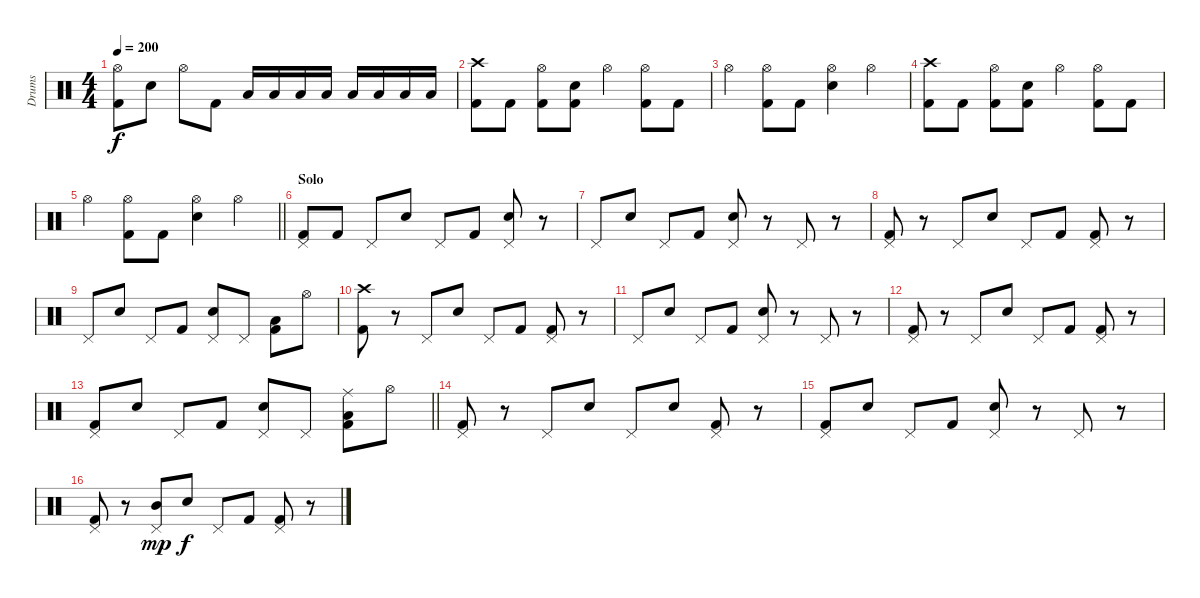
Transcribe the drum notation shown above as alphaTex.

\track ("Drums" "Drums") {instrument percussion}
\staff {score}
\articulation defaults
\ts (4 4)
\tempo 200
\clef neutral
\ks c
("Hi-Hat (open)" "Kick (hit) 2").8{dy f} "Snare (hit) 2".8 "Hi-Hat (open)".8 "Kick (hit) 2".8 "Low Tom (hit)".16 "Low Tom (hit)".16 "Low Tom (hit)".16 "Low Tom (hit)".16 "Low Floor Tom (hit)".16 "Low Floor Tom (hit)".16 "Low Floor Tom (hit)".16 "Low Floor Tom (hit)".16 |
("Crash high (hit)" "Kick (hit) 2").8 "Kick (hit) 2".8 ("Hi-Hat (open)" "Kick (hit) 2").8 ("Snare (hit) 2" "Kick (hit) 2").8 "Hi-Hat (open)".4 ("Hi-Hat (open)" "Kick (hit) 2").8 "Kick (hit) 2".8 |
"Hi-Hat (open)".4 ("Hi-Hat (open)" "Kick (hit) 2").8 "Kick (hit) 2".8 ("Hi-Hat (open)" "Snare (hit) 2").4 "Hi-Hat (open)".4 |
("Crash high (hit)" "Kick (hit) 2").8 "Kick (hit) 2".8 ("Hi-Hat (open)" "Kick (hit) 2").8 ("Snare (hit) 2" "Kick (hit) 2").8 "Hi-Hat (open)".4 ("Hi-Hat (open)" "Kick (hit) 2").8 "Kick (hit) 2".8 |
\barLineRight lightlight "Hi-Hat (open)".4
("Hi-Hat (open)" "Kick (hit) 2").8 "Kick (hit) 2".8 ("Hi-Hat (open)" "Snare (hit) 2").4 "Hi-Hat (open)".4 |
\section ("" "Solo")
("Pedal Hi-Hat (hit)" "Kick (hit) 2").8 "Kick (hit) 2".8 "Pedal Hi-Hat (hit)".8 "Snare (hit) 2".8 "Pedal Hi-Hat (hit)".8 "Kick (hit) 2".8 ("Pedal Hi-Hat (hit)" "Snare (hit) 2").8 r.8 |
"Pedal Hi-Hat (hit)".8 "Snare (hit) 2".8 "Pedal Hi-Hat (hit)".8 "Kick (hit) 2".8 ("Pedal Hi-Hat (hit)" "Snare (hit) 2").8 r.8 "Pedal Hi-Hat (hit)".8 r.8 |
("Pedal Hi-Hat (hit)" "Kick (hit) 2").8 r.8 "Pedal Hi-Hat (hit)".8 "Snare (hit) 2".8 "Pedal Hi-Hat (hit)".8 "Kick (hit) 2".8 ("Pedal Hi-Hat (hit)" "Kick (hit) 2").8 r.8 |
"Pedal Hi-Hat (hit)".8 "Snare (hit) 2".8 "Pedal Hi-Hat (hit)".8 "Kick (hit) 2".8 ("Pedal Hi-Hat (hit)" "Snare (hit) 2").8 "Pedal Hi-Hat (hit)".8 ("Low Floor Tom (hit)" "Kick (hit) 2").8 "Hi-Hat (open)".8 |
("Crash high (hit)" "Kick (hit) 2").8 r.8 "Pedal Hi-Hat (hit)".8 "Snare (hit) 2".8 "Pedal Hi-Hat (hit)".8 "Kick (hit) 2".8 ("Pedal Hi-Hat (hit)" "Kick (hit) 2").8 r.8 |
"Pedal Hi-Hat (hit)".8 "Snare (hit) 2".8 "Pedal Hi-Hat (hit)".8 "Kick (hit) 2".8 ("Pedal Hi-Hat (hit)" "Snare (hit) 2").8 r.8 "Pedal Hi-Hat (hit)".8 r.8 |
("Pedal Hi-Hat (hit)" "Kick (hit) 2").8 r.8 "Pedal Hi-Hat (hit)".8 "Snare (hit) 2".8 "Pedal Hi-Hat (hit)".8 "Kick (hit) 2".8 ("Pedal Hi-Hat (hit)" "Kick (hit) 2").8 r.8 |
\barLineRight lightlight
("Pedal Hi-Hat (hit)" "Kick (hit) 2").8 "Snare (hit) 2".8 "Pedal Hi-Hat (hit)".8 "Kick (hit) 2".8 ("Pedal Hi-Hat (hit)" "Snare (hit) 2").8 "Pedal Hi-Hat (hit)".8 ("Ride (middle)" "Low Floor Tom (hit)" "Kick (hit) 2").8 "Hi-Hat (open)".8 |
("Pedal Hi-Hat (hit)" "Kick (hit) 2").8 r.8 "Pedal Hi-Hat (hit)".8 "Snare (hit) 2".8 "Pedal Hi-Hat (hit)".8 "Snare (hit) 2".8 ("Pedal Hi-Hat (hit)" "Kick (hit) 2").8 r.8 |
("Pedal Hi-Hat (hit)" "Kick (hit) 2").8 "Snare (hit) 2".8 "Pedal Hi-Hat (hit)".8 "Kick (hit) 2".8 ("Pedal Hi-Hat (hit)" "Snare (hit) 2").8 r.8 "Pedal Hi-Hat (hit)".8 r.8 |
("Pedal Hi-Hat (hit)" "Kick (hit) 2").8 r.8 ("Pedal Hi-Hat (hit)" "Mid Tom (hit)").8{dy mp} "Snare (hit) 2".8{dy f} "Pedal Hi-Hat (hit)".8 "Kick (hit) 2".8 ("Pedal Hi-Hat (hit)" "Kick (hit) 2").8 r.8
